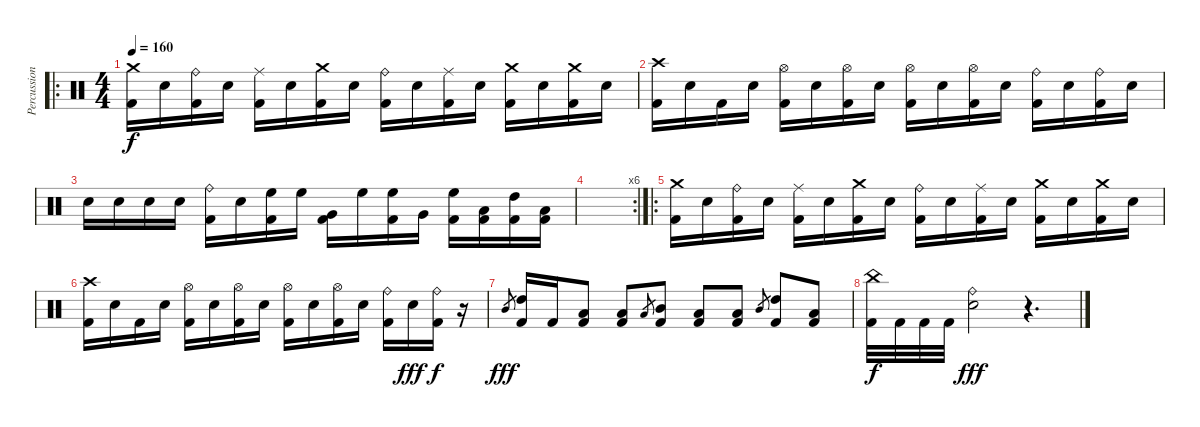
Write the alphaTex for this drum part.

\track ("Percussion" "Percussion") {instrument percussion}
\staff {score}
\articulation defaults
\ro
\ts (4 4)
\tempo 160
\clef neutral
\ks c
("Crash medium (hit)" "Kick (hit) 2").16{dy f} "Electric Snare (hit)".16 ("Ride (bell)" "Kick (hit) 2").16 "Electric Snare (hit)".16 ("Ride (middle)" "Kick (hit) 2").16 "Electric Snare (hit)".16 ("Crash medium (hit)" "Kick (hit) 2").16 "Electric Snare (hit)".16 ("Ride (bell)" "Kick (hit) 2").16 "Electric Snare (hit)".16 ("Ride (middle)" "Kick (hit) 2").16 "Electric Snare (hit)".16 ("Crash medium (hit)" "Kick (hit) 2").16 "Electric Snare (hit)".16 ("Crash medium (hit)" "Kick (hit) 2").16 "Electric Snare (hit)".16 |
("Crash high (hit)" "Kick (hit) 2").16 "Electric Snare (hit)".16 "Kick (hit) 2".16 "Electric Snare (hit)".16 ("Hi-Hat (open)" "Kick (hit) 2").16 "Electric Snare (hit)".16 ("Hi-Hat (open)" "Kick (hit) 2").16 "Electric Snare (hit)".16 ("Hi-Hat (open)" "Kick (hit) 2").16 "Electric Snare (hit)".16 ("Hi-Hat (open)" "Kick (hit) 2").16 "Electric Snare (hit)".16 ("Ride (bell)" "Kick (hit) 2").16 "Electric Snare (hit)".16 ("Ride (bell)" "Kick (hit) 2").16 "Electric Snare (hit)".16 |
"Electric Snare (hit)".16 "Electric Snare (hit)".16 "Electric Snare (hit)".16 "Electric Snare (hit)".16 ("Ride (bell)" "Kick (hit) 2").16 "Electric Snare (hit)".16 ("High Floor Tom (hit)" "Kick (hit) 2").16 "High Floor Tom (hit)".16 ("Very Low Tom (hit)" "Kick (hit) 2").16 "High Floor Tom (hit)".16 ("High Floor Tom (hit)" "Kick (hit) 2").16 "Very Low Tom (hit)".16 ("High Floor Tom (hit)" "Kick (hit) 2").16 ("Low Floor Tom (hit)" "Kick (hit) 2").16 ("High Tom (hit)" "Kick (hit) 2").16 ("Low Floor Tom (hit)" "Kick (hit) 2").16 |
\rc 6
|
\ro
("Crash medium (hit)" "Kick (hit) 2").16 "Electric Snare (hit)".16 ("Ride (bell)" "Kick (hit) 2").16 "Electric Snare (hit)".16 ("Ride (middle)" "Kick (hit) 2").16 "Electric Snare (hit)".16 ("Crash medium (hit)" "Kick (hit) 2").16 "Electric Snare (hit)".16 ("Ride (bell)" "Kick (hit) 2").16 "Electric Snare (hit)".16 ("Ride (middle)" "Kick (hit) 2").16 "Electric Snare (hit)".16 ("Crash medium (hit)" "Kick (hit) 2").16 "Electric Snare (hit)".16 ("Crash medium (hit)" "Kick (hit) 2").16 "Electric Snare (hit)".16 |
("Crash high (hit)" "Kick (hit) 2").16 "Electric Snare (hit)".16 "Kick (hit) 2".16 "Electric Snare (hit)".16 ("Hi-Hat (open)" "Kick (hit) 2").16 "Electric Snare (hit)".16 ("Hi-Hat (open)" "Kick (hit) 2").16 "Electric Snare (hit)".16 ("Hi-Hat (open)" "Kick (hit) 2").16 "Electric Snare (hit)".16 ("Hi-Hat (open)" "Kick (hit) 2").16 "Electric Snare (hit)".16 ("Ride (bell)" "Kick (hit) 2").16 "Electric Snare (hit)".16{dy fff} ("Ride (bell)" "Kick (hit) 2").16{dy f} r.16 |
"Mid Tom (hit)".8{gr dy fff} ("High Tom (hit)" "Kick (hit) 2").16 "Kick (hit) 2".16 ("Low Floor Tom (hit)" "Kick (hit) 2").8 ("Low Floor Tom (hit)" "Kick (hit) 2").8 "Low Tom (hit)".8{gr} ("Mid Tom (hit)" "Kick (hit) 2").8 ("Low Floor Tom (hit)" "Kick (hit) 2").8 ("Low Floor Tom (hit)" "Kick (hit) 2").8 "Mid Tom (hit)".8{gr} ("High Tom (hit)" "Kick (hit) 2").8 ("Low Tom (hit)" "Kick (hit) 2").8 |
("China (hit)" "Kick (hit) 2").32{dy f} "Kick (hit) 2".32 "Kick (hit) 2".32 "Kick (hit) 2".32 ("Ride (bell)" "Electric Snare (hit)").2{dy fff} r.4{d}
